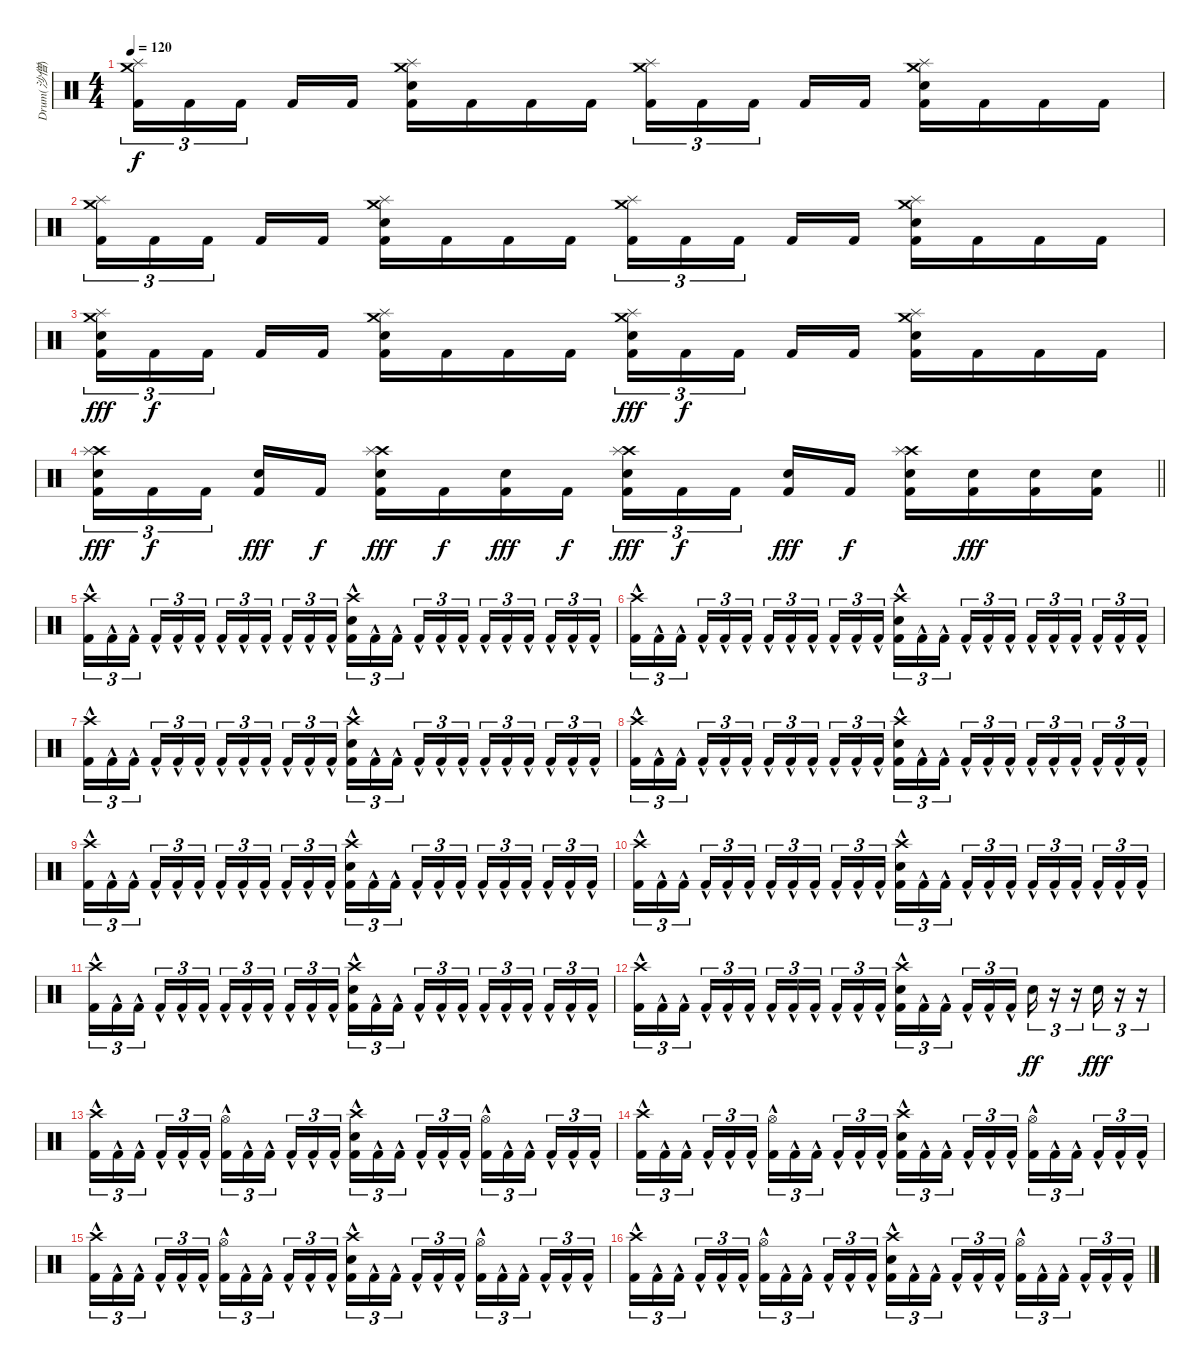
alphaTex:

\track ("Drum(沙僧)" "Drum(沙僧)") {instrument percussion}
\staff {score}
\articulation defaults
\ts (4 4)
\tempo 120
\clef neutral
\ks c
("Crash medium (hit)" "Splash (hit)" "Kick (hit) 2").16{tu (3 2) dy f} "Kick (hit) 2".16{tu (3 2)} "Kick (hit) 2".16{tu (3 2) beam splitsecondary} "Kick (hit) 2".16 "Kick (hit) 2".16 ("Crash medium (hit)" "Splash (hit)" "Snare (hit) 2" "Kick (hit) 2").16 "Kick (hit) 2".16 "Kick (hit) 2".16 "Kick (hit) 2".16 ("Crash medium (hit)" "Splash (hit)" "Kick (hit) 2").16{tu (3 2)} "Kick (hit) 2".16{tu (3 2)} "Kick (hit) 2".16{tu (3 2) beam splitsecondary} "Kick (hit) 2".16 "Kick (hit) 2".16 ("Crash medium (hit)" "Splash (hit)" "Snare (hit) 2" "Kick (hit) 2").16 "Kick (hit) 2".16 "Kick (hit) 2".16 "Kick (hit) 2".16 |
("Crash medium (hit)" "Splash (hit)" "Kick (hit) 2").16{tu (3 2)} "Kick (hit) 2".16{tu (3 2)} "Kick (hit) 2".16{tu (3 2) beam splitsecondary} "Kick (hit) 2".16 "Kick (hit) 2".16 ("Crash medium (hit)" "Splash (hit)" "Snare (hit) 2" "Kick (hit) 2").16 "Kick (hit) 2".16 "Kick (hit) 2".16 "Kick (hit) 2".16 ("Crash medium (hit)" "Splash (hit)" "Kick (hit) 2").16{tu (3 2)} "Kick (hit) 2".16{tu (3 2)} "Kick (hit) 2".16{tu (3 2) beam splitsecondary} "Kick (hit) 2".16 "Kick (hit) 2".16 ("Crash medium (hit)" "Splash (hit)" "Snare (hit) 2" "Kick (hit) 2").16 "Kick (hit) 2".16 "Kick (hit) 2".16 "Kick (hit) 2".16 |
("Crash medium (hit)" "Splash (hit)" "Snare (hit) 2" "Kick (hit) 2").16{tu (3 2) dy fff} "Kick (hit) 2".16{tu (3 2) dy f} "Kick (hit) 2".16{tu (3 2) beam splitsecondary} "Kick (hit) 2".16 "Kick (hit) 2".16 ("Crash medium (hit)" "Splash (hit)" "Snare (hit) 2" "Kick (hit) 2").16 "Kick (hit) 2".16 "Kick (hit) 2".16 "Kick (hit) 2".16 ("Crash medium (hit)" "Splash (hit)" "Snare (hit) 2" "Kick (hit) 2").16{tu (3 2) dy fff} "Kick (hit) 2".16{tu (3 2) dy f} "Kick (hit) 2".16{tu (3 2) beam splitsecondary} "Kick (hit) 2".16 "Kick (hit) 2".16 ("Crash medium (hit)" "Splash (hit)" "Snare (hit) 2" "Kick (hit) 2").16 "Kick (hit) 2".16 "Kick (hit) 2".16 "Kick (hit) 2".16 |
\barLineRight lightlight
("Crash high (hit)" "Splash (hit)" "Snare (hit) 2" "Kick (hit) 2").16{tu (3 2) dy fff} "Kick (hit) 2".16{tu (3 2) dy f} "Kick (hit) 2".16{tu (3 2) beam splitsecondary} ("Snare (hit) 2" "Kick (hit) 2").16{dy fff} "Kick (hit) 2".16{dy f} ("Crash high (hit)" "Splash (hit)" "Snare (hit) 2" "Kick (hit) 2").16{dy fff} "Kick (hit) 2".16{dy f} ("Snare (hit) 2" "Kick (hit) 2").16{dy fff} "Kick (hit) 2".16{dy f} ("Crash high (hit)" "Splash (hit)" "Snare (hit) 2" "Kick (hit) 2").16{tu (3 2) dy fff} "Kick (hit) 2".16{tu (3 2) dy f} "Kick (hit) 2".16{tu (3 2) beam splitsecondary} ("Snare (hit) 2" "Kick (hit) 2").16{dy fff} "Kick (hit) 2".16{dy f} ("Crash high (hit)" "Splash (hit)" "Snare (hit) 2" "Kick (hit) 2").16 ("Snare (hit) 2" "Kick (hit) 2").16{dy fff} ("Snare (hit) 2" "Kick (hit) 2").16 ("Snare (hit) 2" "Kick (hit) 2").16 |
("Crash high (hit)" "Kick (hit) 2"{hac}).16{tu (3 2)} "Kick (hit) 2"{hac}.16{tu (3 2)} "Kick (hit) 2"{hac}.16{tu (3 2) beam splitsecondary} "Kick (hit) 2"{hac}.16{tu (3 2)} "Kick (hit) 2"{hac}.16{tu (3 2)} "Kick (hit) 2"{hac}.16{tu (3 2)} "Kick (hit) 2"{hac}.16{tu (3 2)} "Kick (hit) 2"{hac}.16{tu (3 2)} "Kick (hit) 2"{hac}.16{tu (3 2) beam splitsecondary} "Kick (hit) 2"{hac}.16{tu (3 2)} "Kick (hit) 2"{hac}.16{tu (3 2)} "Kick (hit) 2"{hac}.16{tu (3 2)} ("Crash high (hit)" "Snare (hit) 2" "Kick (hit) 2"{hac}).16{tu (3 2)} "Kick (hit) 2"{hac}.16{tu (3 2)} "Kick (hit) 2"{hac}.16{tu (3 2) beam splitsecondary} "Kick (hit) 2"{hac}.16{tu (3 2)} "Kick (hit) 2"{hac}.16{tu (3 2)} "Kick (hit) 2"{hac}.16{tu (3 2)} "Kick (hit) 2"{hac}.16{tu (3 2)} "Kick (hit) 2"{hac}.16{tu (3 2)} "Kick (hit) 2"{hac}.16{tu (3 2) beam splitsecondary} "Kick (hit) 2"{hac}.16{tu (3 2)} "Kick (hit) 2"{hac}.16{tu (3 2)} "Kick (hit) 2"{hac}.16{tu (3 2)} |
("Crash high (hit)" "Kick (hit) 2"{hac}).16{tu (3 2)} "Kick (hit) 2"{hac}.16{tu (3 2)} "Kick (hit) 2"{hac}.16{tu (3 2) beam splitsecondary} "Kick (hit) 2"{hac}.16{tu (3 2)} "Kick (hit) 2"{hac}.16{tu (3 2)} "Kick (hit) 2"{hac}.16{tu (3 2)} "Kick (hit) 2"{hac}.16{tu (3 2)} "Kick (hit) 2"{hac}.16{tu (3 2)} "Kick (hit) 2"{hac}.16{tu (3 2) beam splitsecondary} "Kick (hit) 2"{hac}.16{tu (3 2)} "Kick (hit) 2"{hac}.16{tu (3 2)} "Kick (hit) 2"{hac}.16{tu (3 2)} ("Crash high (hit)" "Snare (hit) 2" "Kick (hit) 2"{hac}).16{tu (3 2)} "Kick (hit) 2"{hac}.16{tu (3 2)} "Kick (hit) 2"{hac}.16{tu (3 2) beam splitsecondary} "Kick (hit) 2"{hac}.16{tu (3 2)} "Kick (hit) 2"{hac}.16{tu (3 2)} "Kick (hit) 2"{hac}.16{tu (3 2)} "Kick (hit) 2"{hac}.16{tu (3 2)} "Kick (hit) 2"{hac}.16{tu (3 2)} "Kick (hit) 2"{hac}.16{tu (3 2) beam splitsecondary} "Kick (hit) 2"{hac}.16{tu (3 2)} "Kick (hit) 2"{hac}.16{tu (3 2)} "Kick (hit) 2"{hac}.16{tu (3 2)} |
("Crash high (hit)" "Kick (hit) 2"{hac}).16{tu (3 2)} "Kick (hit) 2"{hac}.16{tu (3 2)} "Kick (hit) 2"{hac}.16{tu (3 2) beam splitsecondary} "Kick (hit) 2"{hac}.16{tu (3 2)} "Kick (hit) 2"{hac}.16{tu (3 2)} "Kick (hit) 2"{hac}.16{tu (3 2)} "Kick (hit) 2"{hac}.16{tu (3 2)} "Kick (hit) 2"{hac}.16{tu (3 2)} "Kick (hit) 2"{hac}.16{tu (3 2) beam splitsecondary} "Kick (hit) 2"{hac}.16{tu (3 2)} "Kick (hit) 2"{hac}.16{tu (3 2)} "Kick (hit) 2"{hac}.16{tu (3 2)} ("Crash high (hit)" "Snare (hit) 2" "Kick (hit) 2"{hac}).16{tu (3 2)} "Kick (hit) 2"{hac}.16{tu (3 2)} "Kick (hit) 2"{hac}.16{tu (3 2) beam splitsecondary} "Kick (hit) 2"{hac}.16{tu (3 2)} "Kick (hit) 2"{hac}.16{tu (3 2)} "Kick (hit) 2"{hac}.16{tu (3 2)} "Kick (hit) 2"{hac}.16{tu (3 2)} "Kick (hit) 2"{hac}.16{tu (3 2)} "Kick (hit) 2"{hac}.16{tu (3 2) beam splitsecondary} "Kick (hit) 2"{hac}.16{tu (3 2)} "Kick (hit) 2"{hac}.16{tu (3 2)} "Kick (hit) 2"{hac}.16{tu (3 2)} |
("Crash high (hit)" "Kick (hit) 2"{hac}).16{tu (3 2)} "Kick (hit) 2"{hac}.16{tu (3 2)} "Kick (hit) 2"{hac}.16{tu (3 2) beam splitsecondary} "Kick (hit) 2"{hac}.16{tu (3 2)} "Kick (hit) 2"{hac}.16{tu (3 2)} "Kick (hit) 2"{hac}.16{tu (3 2)} "Kick (hit) 2"{hac}.16{tu (3 2)} "Kick (hit) 2"{hac}.16{tu (3 2)} "Kick (hit) 2"{hac}.16{tu (3 2) beam splitsecondary} "Kick (hit) 2"{hac}.16{tu (3 2)} "Kick (hit) 2"{hac}.16{tu (3 2)} "Kick (hit) 2"{hac}.16{tu (3 2)} ("Crash high (hit)" "Snare (hit) 2" "Kick (hit) 2"{hac}).16{tu (3 2)} "Kick (hit) 2"{hac}.16{tu (3 2)} "Kick (hit) 2"{hac}.16{tu (3 2) beam splitsecondary} "Kick (hit) 2"{hac}.16{tu (3 2)} "Kick (hit) 2"{hac}.16{tu (3 2)} "Kick (hit) 2"{hac}.16{tu (3 2)} "Kick (hit) 2"{hac}.16{tu (3 2)} "Kick (hit) 2"{hac}.16{tu (3 2)} "Kick (hit) 2"{hac}.16{tu (3 2) beam splitsecondary} "Kick (hit) 2"{hac}.16{tu (3 2)} "Kick (hit) 2"{hac}.16{tu (3 2)} "Kick (hit) 2"{hac}.16{tu (3 2)} |
("Crash high (hit)" "Kick (hit) 2"{hac}).16{tu (3 2)} "Kick (hit) 2"{hac}.16{tu (3 2)} "Kick (hit) 2"{hac}.16{tu (3 2) beam splitsecondary} "Kick (hit) 2"{hac}.16{tu (3 2)} "Kick (hit) 2"{hac}.16{tu (3 2)} "Kick (hit) 2"{hac}.16{tu (3 2)} "Kick (hit) 2"{hac}.16{tu (3 2)} "Kick (hit) 2"{hac}.16{tu (3 2)} "Kick (hit) 2"{hac}.16{tu (3 2) beam splitsecondary} "Kick (hit) 2"{hac}.16{tu (3 2)} "Kick (hit) 2"{hac}.16{tu (3 2)} "Kick (hit) 2"{hac}.16{tu (3 2)} ("Crash high (hit)" "Snare (hit) 2" "Kick (hit) 2"{hac}).16{tu (3 2)} "Kick (hit) 2"{hac}.16{tu (3 2)} "Kick (hit) 2"{hac}.16{tu (3 2) beam splitsecondary} "Kick (hit) 2"{hac}.16{tu (3 2)} "Kick (hit) 2"{hac}.16{tu (3 2)} "Kick (hit) 2"{hac}.16{tu (3 2)} "Kick (hit) 2"{hac}.16{tu (3 2)} "Kick (hit) 2"{hac}.16{tu (3 2)} "Kick (hit) 2"{hac}.16{tu (3 2) beam splitsecondary} "Kick (hit) 2"{hac}.16{tu (3 2)} "Kick (hit) 2"{hac}.16{tu (3 2)} "Kick (hit) 2"{hac}.16{tu (3 2)} |
("Crash high (hit)" "Kick (hit) 2"{hac}).16{tu (3 2)} "Kick (hit) 2"{hac}.16{tu (3 2)} "Kick (hit) 2"{hac}.16{tu (3 2) beam splitsecondary} "Kick (hit) 2"{hac}.16{tu (3 2)} "Kick (hit) 2"{hac}.16{tu (3 2)} "Kick (hit) 2"{hac}.16{tu (3 2)} "Kick (hit) 2"{hac}.16{tu (3 2)} "Kick (hit) 2"{hac}.16{tu (3 2)} "Kick (hit) 2"{hac}.16{tu (3 2) beam splitsecondary} "Kick (hit) 2"{hac}.16{tu (3 2)} "Kick (hit) 2"{hac}.16{tu (3 2)} "Kick (hit) 2"{hac}.16{tu (3 2)} ("Crash high (hit)" "Snare (hit) 2" "Kick (hit) 2"{hac}).16{tu (3 2)} "Kick (hit) 2"{hac}.16{tu (3 2)} "Kick (hit) 2"{hac}.16{tu (3 2) beam splitsecondary} "Kick (hit) 2"{hac}.16{tu (3 2)} "Kick (hit) 2"{hac}.16{tu (3 2)} "Kick (hit) 2"{hac}.16{tu (3 2)} "Kick (hit) 2"{hac}.16{tu (3 2)} "Kick (hit) 2"{hac}.16{tu (3 2)} "Kick (hit) 2"{hac}.16{tu (3 2) beam splitsecondary} "Kick (hit) 2"{hac}.16{tu (3 2)} "Kick (hit) 2"{hac}.16{tu (3 2)} "Kick (hit) 2"{hac}.16{tu (3 2)} |
("Crash high (hit)" "Kick (hit) 2"{hac}).16{tu (3 2)} "Kick (hit) 2"{hac}.16{tu (3 2)} "Kick (hit) 2"{hac}.16{tu (3 2) beam splitsecondary} "Kick (hit) 2"{hac}.16{tu (3 2)} "Kick (hit) 2"{hac}.16{tu (3 2)} "Kick (hit) 2"{hac}.16{tu (3 2)} "Kick (hit) 2"{hac}.16{tu (3 2)} "Kick (hit) 2"{hac}.16{tu (3 2)} "Kick (hit) 2"{hac}.16{tu (3 2) beam splitsecondary} "Kick (hit) 2"{hac}.16{tu (3 2)} "Kick (hit) 2"{hac}.16{tu (3 2)} "Kick (hit) 2"{hac}.16{tu (3 2)} ("Crash high (hit)" "Snare (hit) 2" "Kick (hit) 2"{hac}).16{tu (3 2)} "Kick (hit) 2"{hac}.16{tu (3 2)} "Kick (hit) 2"{hac}.16{tu (3 2) beam splitsecondary} "Kick (hit) 2"{hac}.16{tu (3 2)} "Kick (hit) 2"{hac}.16{tu (3 2)} "Kick (hit) 2"{hac}.16{tu (3 2)} "Kick (hit) 2"{hac}.16{tu (3 2)} "Kick (hit) 2"{hac}.16{tu (3 2)} "Kick (hit) 2"{hac}.16{tu (3 2) beam splitsecondary} "Kick (hit) 2"{hac}.16{tu (3 2)} "Kick (hit) 2"{hac}.16{tu (3 2)} "Kick (hit) 2"{hac}.16{tu (3 2)} |
("Crash high (hit)" "Kick (hit) 2"{hac}).16{tu (3 2)} "Kick (hit) 2"{hac}.16{tu (3 2)} "Kick (hit) 2"{hac}.16{tu (3 2) beam splitsecondary} "Kick (hit) 2"{hac}.16{tu (3 2)} "Kick (hit) 2"{hac}.16{tu (3 2)} "Kick (hit) 2"{hac}.16{tu (3 2)} "Kick (hit) 2"{hac}.16{tu (3 2)} "Kick (hit) 2"{hac}.16{tu (3 2)} "Kick (hit) 2"{hac}.16{tu (3 2) beam splitsecondary} "Kick (hit) 2"{hac}.16{tu (3 2)} "Kick (hit) 2"{hac}.16{tu (3 2)} "Kick (hit) 2"{hac}.16{tu (3 2)} ("Crash high (hit)" "Snare (hit) 2" "Kick (hit) 2"{hac}).16{tu (3 2)} "Kick (hit) 2"{hac}.16{tu (3 2)} "Kick (hit) 2"{hac}.16{tu (3 2) beam splitsecondary} "Kick (hit) 2"{hac}.16{tu (3 2)} "Kick (hit) 2"{hac}.16{tu (3 2)} "Kick (hit) 2"{hac}.16{tu (3 2)} "Snare (hit) 2".16{tu (3 2) dy ff} r.16{tu (3 2)} r.16{tu (3 2)} "Snare (hit) 2".16{tu (3 2) dy fff} r.16{tu (3 2)} r.16{tu (3 2)} |
("Crash high (hit)" "Kick (hit) 2"{hac}).16{tu (3 2)} "Kick (hit) 2"{hac}.16{tu (3 2)} "Kick (hit) 2"{hac}.16{tu (3 2) beam splitsecondary} "Kick (hit) 2"{hac}.16{tu (3 2)} "Kick (hit) 2"{hac}.16{tu (3 2)} "Kick (hit) 2"{hac}.16{tu (3 2)} ("Hi-Hat (open)" "Kick (hit) 2"{hac}).16{tu (3 2)} "Kick (hit) 2"{hac}.16{tu (3 2)} "Kick (hit) 2"{hac}.16{tu (3 2) beam splitsecondary} "Kick (hit) 2"{hac}.16{tu (3 2)} "Kick (hit) 2"{hac}.16{tu (3 2)} "Kick (hit) 2"{hac}.16{tu (3 2)} ("Crash high (hit)" "Snare (hit) 2" "Kick (hit) 2"{hac}).16{tu (3 2)} "Kick (hit) 2"{hac}.16{tu (3 2)} "Kick (hit) 2"{hac}.16{tu (3 2) beam splitsecondary} "Kick (hit) 2"{hac}.16{tu (3 2)} "Kick (hit) 2"{hac}.16{tu (3 2)} "Kick (hit) 2"{hac}.16{tu (3 2)} ("Hi-Hat (open)" "Kick (hit) 2"{hac}).16{tu (3 2)} "Kick (hit) 2"{hac}.16{tu (3 2)} "Kick (hit) 2"{hac}.16{tu (3 2) beam splitsecondary} "Kick (hit) 2"{hac}.16{tu (3 2)} "Kick (hit) 2"{hac}.16{tu (3 2)} "Kick (hit) 2"{hac}.16{tu (3 2)} |
("Crash high (hit)" "Kick (hit) 2"{hac}).16{tu (3 2)} "Kick (hit) 2"{hac}.16{tu (3 2)} "Kick (hit) 2"{hac}.16{tu (3 2) beam splitsecondary} "Kick (hit) 2"{hac}.16{tu (3 2)} "Kick (hit) 2"{hac}.16{tu (3 2)} "Kick (hit) 2"{hac}.16{tu (3 2)} ("Hi-Hat (open)" "Kick (hit) 2"{hac}).16{tu (3 2)} "Kick (hit) 2"{hac}.16{tu (3 2)} "Kick (hit) 2"{hac}.16{tu (3 2) beam splitsecondary} "Kick (hit) 2"{hac}.16{tu (3 2)} "Kick (hit) 2"{hac}.16{tu (3 2)} "Kick (hit) 2"{hac}.16{tu (3 2)} ("Crash high (hit)" "Snare (hit) 2" "Kick (hit) 2"{hac}).16{tu (3 2)} "Kick (hit) 2"{hac}.16{tu (3 2)} "Kick (hit) 2"{hac}.16{tu (3 2) beam splitsecondary} "Kick (hit) 2"{hac}.16{tu (3 2)} "Kick (hit) 2"{hac}.16{tu (3 2)} "Kick (hit) 2"{hac}.16{tu (3 2)} ("Hi-Hat (open)" "Kick (hit) 2"{hac}).16{tu (3 2)} "Kick (hit) 2"{hac}.16{tu (3 2)} "Kick (hit) 2"{hac}.16{tu (3 2) beam splitsecondary} "Kick (hit) 2"{hac}.16{tu (3 2)} "Kick (hit) 2"{hac}.16{tu (3 2)} "Kick (hit) 2"{hac}.16{tu (3 2)} |
("Crash high (hit)" "Kick (hit) 2"{hac}).16{tu (3 2)} "Kick (hit) 2"{hac}.16{tu (3 2)} "Kick (hit) 2"{hac}.16{tu (3 2) beam splitsecondary} "Kick (hit) 2"{hac}.16{tu (3 2)} "Kick (hit) 2"{hac}.16{tu (3 2)} "Kick (hit) 2"{hac}.16{tu (3 2)} ("Hi-Hat (open)" "Kick (hit) 2"{hac}).16{tu (3 2)} "Kick (hit) 2"{hac}.16{tu (3 2)} "Kick (hit) 2"{hac}.16{tu (3 2) beam splitsecondary} "Kick (hit) 2"{hac}.16{tu (3 2)} "Kick (hit) 2"{hac}.16{tu (3 2)} "Kick (hit) 2"{hac}.16{tu (3 2)} ("Crash high (hit)" "Snare (hit) 2" "Kick (hit) 2"{hac}).16{tu (3 2)} "Kick (hit) 2"{hac}.16{tu (3 2)} "Kick (hit) 2"{hac}.16{tu (3 2) beam splitsecondary} "Kick (hit) 2"{hac}.16{tu (3 2)} "Kick (hit) 2"{hac}.16{tu (3 2)} "Kick (hit) 2"{hac}.16{tu (3 2)} ("Hi-Hat (open)" "Kick (hit) 2"{hac}).16{tu (3 2)} "Kick (hit) 2"{hac}.16{tu (3 2)} "Kick (hit) 2"{hac}.16{tu (3 2) beam splitsecondary} "Kick (hit) 2"{hac}.16{tu (3 2)} "Kick (hit) 2"{hac}.16{tu (3 2)} "Kick (hit) 2"{hac}.16{tu (3 2)} |
("Crash high (hit)" "Kick (hit) 2"{hac}).16{tu (3 2)} "Kick (hit) 2"{hac}.16{tu (3 2)} "Kick (hit) 2"{hac}.16{tu (3 2) beam splitsecondary} "Kick (hit) 2"{hac}.16{tu (3 2)} "Kick (hit) 2"{hac}.16{tu (3 2)} "Kick (hit) 2"{hac}.16{tu (3 2)} ("Hi-Hat (open)" "Kick (hit) 2"{hac}).16{tu (3 2)} "Kick (hit) 2"{hac}.16{tu (3 2)} "Kick (hit) 2"{hac}.16{tu (3 2) beam splitsecondary} "Kick (hit) 2"{hac}.16{tu (3 2)} "Kick (hit) 2"{hac}.16{tu (3 2)} "Kick (hit) 2"{hac}.16{tu (3 2)} ("Crash high (hit)" "Snare (hit) 2" "Kick (hit) 2"{hac}).16{tu (3 2)} "Kick (hit) 2"{hac}.16{tu (3 2)} "Kick (hit) 2"{hac}.16{tu (3 2) beam splitsecondary} "Kick (hit) 2"{hac}.16{tu (3 2)} "Kick (hit) 2"{hac}.16{tu (3 2)} "Kick (hit) 2"{hac}.16{tu (3 2)} ("Hi-Hat (open)" "Kick (hit) 2"{hac}).16{tu (3 2)} "Kick (hit) 2"{hac}.16{tu (3 2)} "Kick (hit) 2"{hac}.16{tu (3 2) beam splitsecondary} "Kick (hit) 2"{hac}.16{tu (3 2)} "Kick (hit) 2"{hac}.16{tu (3 2)} "Kick (hit) 2"{hac}.16{tu (3 2)}
